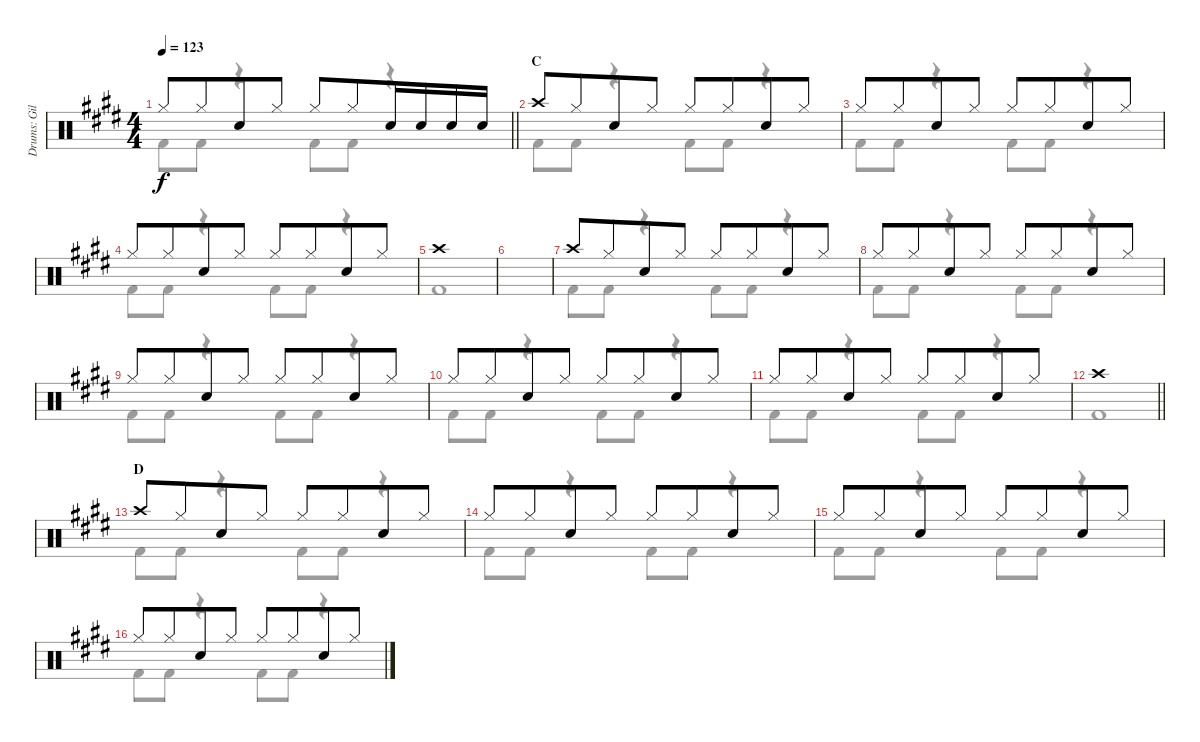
\track ("Drums: Gil" "Drums: Gil") {instrument percussion}
\staff {score}
\articulation defaults
\voice
\ts (4 4)
\tempo 123
\clef neutral
\barLineRight lightlight
\ks e "Hi-Hat (closed)".8{dy f} "Hi-Hat (closed)".8{beam merge} "Snare (hit) 2".8 "Hi-Hat (closed)".8 "Hi-Hat (closed)".8 "Hi-Hat (closed)".8{beam merge} "Snare (hit) 2".16 "Snare (hit) 2".16 "Snare (hit) 2".16 "Snare (hit) 2".16
|
\section ("" "C")
"Crash high (hit)".8 "Hi-Hat (closed)".8{beam merge} "Snare (hit) 2".8 "Hi-Hat (closed)".8 "Hi-Hat (closed)".8 "Hi-Hat (closed)".8{beam merge} "Snare (hit) 2".8 "Hi-Hat (closed)".8 |
"Hi-Hat (closed)".8 "Hi-Hat (closed)".8{beam merge} "Snare (hit) 2".8 "Hi-Hat (closed)".8 "Hi-Hat (closed)".8 "Hi-Hat (closed)".8{beam merge} "Snare (hit) 2".8 "Hi-Hat (closed)".8 |
"Hi-Hat (closed)".8 "Hi-Hat (closed)".8{beam merge} "Snare (hit) 2".8 "Hi-Hat (closed)".8 "Hi-Hat (closed)".8 "Hi-Hat (closed)".8{beam merge} "Snare (hit) 2".8 "Hi-Hat (closed)".8 |
"Crash high (hit)".1 |
|
"Crash high (hit)".8 "Hi-Hat (closed)".8{beam merge} "Snare (hit) 2".8 "Hi-Hat (closed)".8 "Hi-Hat (closed)".8 "Hi-Hat (closed)".8{beam merge} "Snare (hit) 2".8 "Hi-Hat (closed)".8 |
"Hi-Hat (closed)".8 "Hi-Hat (closed)".8{beam merge} "Snare (hit) 2".8 "Hi-Hat (closed)".8 "Hi-Hat (closed)".8 "Hi-Hat (closed)".8{beam merge} "Snare (hit) 2".8 "Hi-Hat (closed)".8 |
"Hi-Hat (closed)".8 "Hi-Hat (closed)".8{beam merge} "Snare (hit) 2".8 "Hi-Hat (closed)".8 "Hi-Hat (closed)".8 "Hi-Hat (closed)".8{beam merge} "Snare (hit) 2".8 "Hi-Hat (closed)".8 |
"Hi-Hat (closed)".8 "Hi-Hat (closed)".8{beam merge} "Snare (hit) 2".8 "Hi-Hat (closed)".8 "Hi-Hat (closed)".8 "Hi-Hat (closed)".8{beam merge} "Snare (hit) 2".8 "Hi-Hat (closed)".8 |
"Hi-Hat (closed)".8 "Hi-Hat (closed)".8{beam merge} "Snare (hit) 2".8 "Hi-Hat (closed)".8 "Hi-Hat (closed)".8 "Hi-Hat (closed)".8{beam merge} "Snare (hit) 2".8 "Hi-Hat (closed)".8 |
\barLineRight lightlight "Crash high (hit)".1
|
\section ("" "D")
"Crash high (hit)".8 "Hi-Hat (closed)".8{beam merge} "Snare (hit) 2".8 "Hi-Hat (closed)".8 "Hi-Hat (closed)".8 "Hi-Hat (closed)".8{beam merge} "Snare (hit) 2".8 "Hi-Hat (closed)".8 |
"Hi-Hat (closed)".8 "Hi-Hat (closed)".8{beam merge} "Snare (hit) 2".8 "Hi-Hat (closed)".8 "Hi-Hat (closed)".8 "Hi-Hat (closed)".8{beam merge} "Snare (hit) 2".8 "Hi-Hat (closed)".8 |
"Hi-Hat (closed)".8 "Hi-Hat (closed)".8{beam merge} "Snare (hit) 2".8 "Hi-Hat (closed)".8 "Hi-Hat (closed)".8 "Hi-Hat (closed)".8{beam merge} "Snare (hit) 2".8 "Hi-Hat (closed)".8 |
"Hi-Hat (closed)".8 "Hi-Hat (closed)".8{beam merge} "Snare (hit) 2".8 "Hi-Hat (closed)".8 "Hi-Hat (closed)".8 "Hi-Hat (closed)".8{beam merge} "Snare (hit) 2".8 "Hi-Hat (closed)".8
\voice
\clef neutral
\ottava regular
\simile none
\barLineRight lightlight
\ks e "Kick (hit) 2".8{dy f} "Kick (hit) 2".8
r.4 "Kick (hit) 2".8 "Kick (hit) 2".8 r.4 |
"Kick (hit) 2".8 "Kick (hit) 2".8 r.4 "Kick (hit) 2".8 "Kick (hit) 2".8 r.4 |
"Kick (hit) 2".8 "Kick (hit) 2".8 r.4 "Kick (hit) 2".8 "Kick (hit) 2".8 r.4 |
"Kick (hit) 2".8 "Kick (hit) 2".8 r.4 "Kick (hit) 2".8 "Kick (hit) 2".8 r.4 |
"Kick (hit) 2".1 |
|
"Kick (hit) 2".8 "Kick (hit) 2".8 r.4 "Kick (hit) 2".8 "Kick (hit) 2".8 r.4 |
"Kick (hit) 2".8 "Kick (hit) 2".8 r.4 "Kick (hit) 2".8 "Kick (hit) 2".8 r.4 |
"Kick (hit) 2".8 "Kick (hit) 2".8 r.4 "Kick (hit) 2".8 "Kick (hit) 2".8 r.4 |
"Kick (hit) 2".8 "Kick (hit) 2".8 r.4 "Kick (hit) 2".8 "Kick (hit) 2".8 r.4 |
"Kick (hit) 2".8 "Kick (hit) 2".8 r.4 "Kick (hit) 2".8 "Kick (hit) 2".8 r.4 |
\barLineRight lightlight "Kick (hit) 2".1
|
"Kick (hit) 2".8 "Kick (hit) 2".8 r.4 "Kick (hit) 2".8 "Kick (hit) 2".8 r.4 |
"Kick (hit) 2".8 "Kick (hit) 2".8 r.4 "Kick (hit) 2".8 "Kick (hit) 2".8 r.4 |
"Kick (hit) 2".8 "Kick (hit) 2".8 r.4 "Kick (hit) 2".8 "Kick (hit) 2".8 r.4 |
"Kick (hit) 2".8 "Kick (hit) 2".8 r.4 "Kick (hit) 2".8 "Kick (hit) 2".8 r.4
